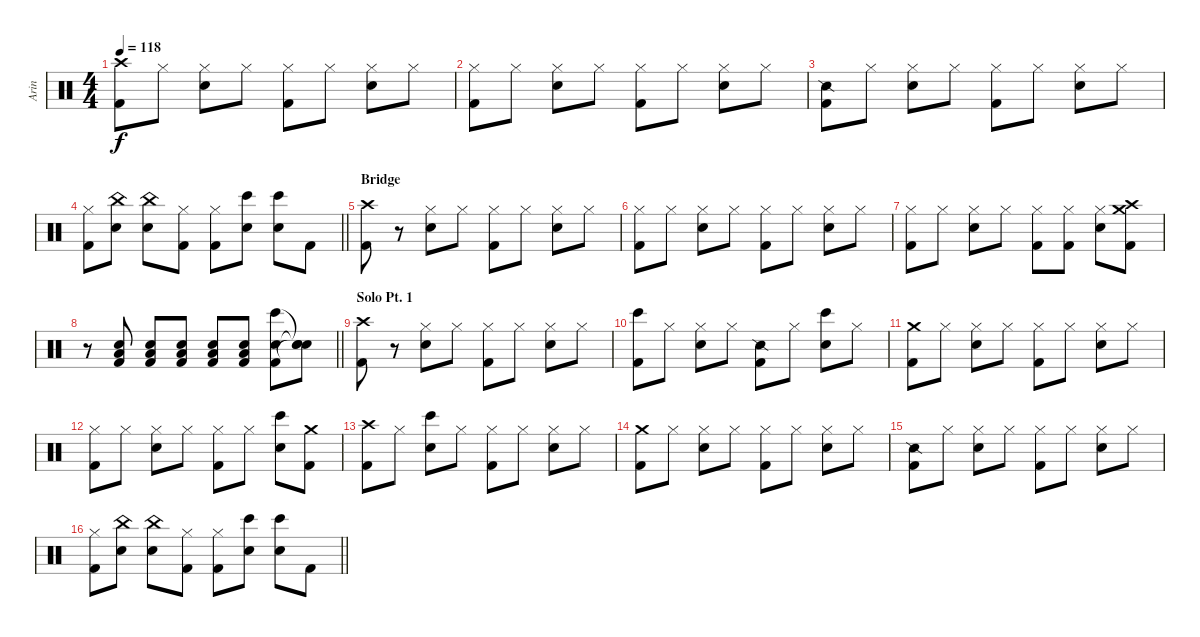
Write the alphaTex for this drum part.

\track ("Arin" "Arin") {instrument percussion}
\staff {score}
\articulation defaults
\ts (4 4)
\tempo 118
\clef neutral
\ks c
("Crash high (hit)" "Kick (hit) 2").8{dy f} "Hi-Hat (closed)".8 ("Hi-Hat (closed)" "Electric Snare (hit)").8 "Hi-Hat (closed)".8 ("Hi-Hat (closed)" "Kick (hit) 2").8 "Hi-Hat (closed)".8 ("Hi-Hat (closed)" "Electric Snare (hit)").8 "Hi-Hat (closed)".8 |
("Hi-Hat (closed)" "Kick (hit) 2").8 "Hi-Hat (closed)".8 ("Hi-Hat (closed)" "Electric Snare (hit)").8 "Hi-Hat (closed)".8 ("Hi-Hat (closed)" "Kick (hit) 2").8 "Hi-Hat (closed)".8 ("Hi-Hat (closed)" "Electric Snare (hit)").8 "Hi-Hat (closed)".8 |
("Snare (side stick) 2" "Kick (hit) 2").8 "Hi-Hat (closed)".8 ("Hi-Hat (closed)" "Electric Snare (hit)").8 "Hi-Hat (closed)".8 ("Hi-Hat (closed)" "Kick (hit) 2").8 "Hi-Hat (closed)".8 ("Hi-Hat (closed)" "Electric Snare (hit)").8 "Hi-Hat (closed)".8 |
\barLineRight lightlight
("Hi-Hat (closed)" "Kick (hit) 2").8 ("China (hit)" "Electric Snare (hit)").8 ("China (hit)" "Electric Snare (hit)").8 ("Hi-Hat (closed)" "Kick (hit) 2").8 ("Hi-Hat (closed)" "Kick (hit) 2").8 ("Bongo High (hit)" "Electric Snare (hit)").8 ("Bongo High (hit)" "Electric Snare (hit)").8 "Kick (hit) 2".8 |
\section ("" "Bridge")
("Crash high (hit)" "Kick (hit) 2").8 r.8 ("Hi-Hat (closed)" "Electric Snare (hit)").8 "Hi-Hat (closed)".8 ("Hi-Hat (closed)" "Kick (hit) 2").8 "Hi-Hat (closed)".8 ("Hi-Hat (closed)" "Electric Snare (hit)").8 "Hi-Hat (closed)".8 |
("Hi-Hat (closed)" "Kick (hit) 2").8 "Hi-Hat (closed)".8 ("Hi-Hat (closed)" "Electric Snare (hit)").8 "Hi-Hat (closed)".8 ("Hi-Hat (closed)" "Kick (hit) 2").8 "Hi-Hat (closed)".8 ("Hi-Hat (closed)" "Electric Snare (hit)").8 "Hi-Hat (closed)".8 |
("Hi-Hat (closed)" "Kick (hit) 2").8 "Hi-Hat (closed)".8 ("Hi-Hat (closed)" "Electric Snare (hit)").8 "Hi-Hat (closed)".8 ("Hi-Hat (closed)" "Kick (hit) 2").8 ("Hi-Hat (closed)" "Kick (hit) 2").8 ("Hi-Hat (closed)" "Electric Snare (hit)").8 ("Crash medium (hit)" "Crash high (hit)" "Kick (hit) 2").8 |
\barLineRight lightlight
r.8 ("Low Tom (hit)" "Electric Snare (hit)" "Kick (hit) 2").8 ("Low Tom (hit)" "Electric Snare (hit)" "Kick (hit) 2").8 ("Low Tom (hit)" "Electric Snare (hit)" "Kick (hit) 2").8 ("Low Tom (hit)" "Electric Snare (hit)" "Kick (hit) 2").8 ("Low Tom (hit)" "Electric Snare (hit)" "Kick (hit) 2").8 ("Bongo High (hit)" "Electric Snare (hit)" "Kick (hit) 2").8 ("Snare (hit)"{t} "Snare (hit)"{t} "Snare (hit)"{t}).8 |
\section ("" "Solo Pt. 1")
("Crash high (hit)" "Kick (hit) 2").8 r.8 ("Hi-Hat (closed)" "Electric Snare (hit)").8 "Hi-Hat (closed)".8 ("Hi-Hat (closed)" "Kick (hit) 2").8 "Hi-Hat (closed)".8 ("Hi-Hat (closed)" "Electric Snare (hit)").8 "Hi-Hat (closed)".8 |
("Bongo High (hit)" "Kick (hit) 2").8 "Hi-Hat (closed)".8 ("Hi-Hat (closed)" "Electric Snare (hit)").8 "Hi-Hat (closed)".8 ("Snare (side stick) 2" "Kick (hit) 2").8 "Hi-Hat (closed)".8 ("Bongo High (hit)" "Electric Snare (hit)").8 "Hi-Hat (closed)".8 |
("Crash medium (hit)" "Kick (hit) 2").8 "Hi-Hat (closed)".8 ("Hi-Hat (closed)" "Electric Snare (hit)").8 "Hi-Hat (closed)".8 ("Hi-Hat (closed)" "Kick (hit) 2").8 "Hi-Hat (closed)".8 ("Hi-Hat (closed)" "Electric Snare (hit)").8 "Hi-Hat (closed)".8 |
("Hi-Hat (closed)" "Kick (hit) 2").8 "Hi-Hat (closed)".8 ("Hi-Hat (closed)" "Electric Snare (hit)").8 "Hi-Hat (closed)".8 ("Hi-Hat (closed)" "Kick (hit) 2").8 "Hi-Hat (closed)".8 ("Bongo High (hit)" "Electric Snare (hit)").8 ("Crash medium (hit)" "Kick (hit) 2").8 |
("Crash high (hit)" "Kick (hit) 2").8 "Hi-Hat (closed)".8 ("Bongo High (hit)" "Electric Snare (hit)").8 "Hi-Hat (closed)".8 ("Hi-Hat (closed)" "Kick (hit) 2").8 "Hi-Hat (closed)".8 ("Hi-Hat (closed)" "Electric Snare (hit)").8 "Hi-Hat (closed)".8 |
("Crash medium (hit)" "Kick (hit) 2").8 "Hi-Hat (closed)".8 ("Hi-Hat (closed)" "Electric Snare (hit)").8 "Hi-Hat (closed)".8 ("Hi-Hat (closed)" "Kick (hit) 2").8 "Hi-Hat (closed)".8 ("Hi-Hat (closed)" "Electric Snare (hit)").8 "Hi-Hat (closed)".8 |
("Snare (side stick) 2" "Kick (hit) 2").8 "Hi-Hat (closed)".8 ("Hi-Hat (closed)" "Electric Snare (hit)").8 "Hi-Hat (closed)".8 ("Hi-Hat (closed)" "Kick (hit) 2").8 "Hi-Hat (closed)".8 ("Hi-Hat (closed)" "Electric Snare (hit)").8 "Hi-Hat (closed)".8 |
\barLineRight lightlight
("Hi-Hat (closed)" "Kick (hit) 2").8 ("China (hit)" "Electric Snare (hit)").8 ("China (hit)" "Electric Snare (hit)").8 ("Hi-Hat (closed)" "Kick (hit) 2").8 ("Hi-Hat (closed)" "Kick (hit) 2").8 ("Bongo High (hit)" "Electric Snare (hit)").8 ("Bongo High (hit)" "Electric Snare (hit)").8 "Kick (hit) 2".8
